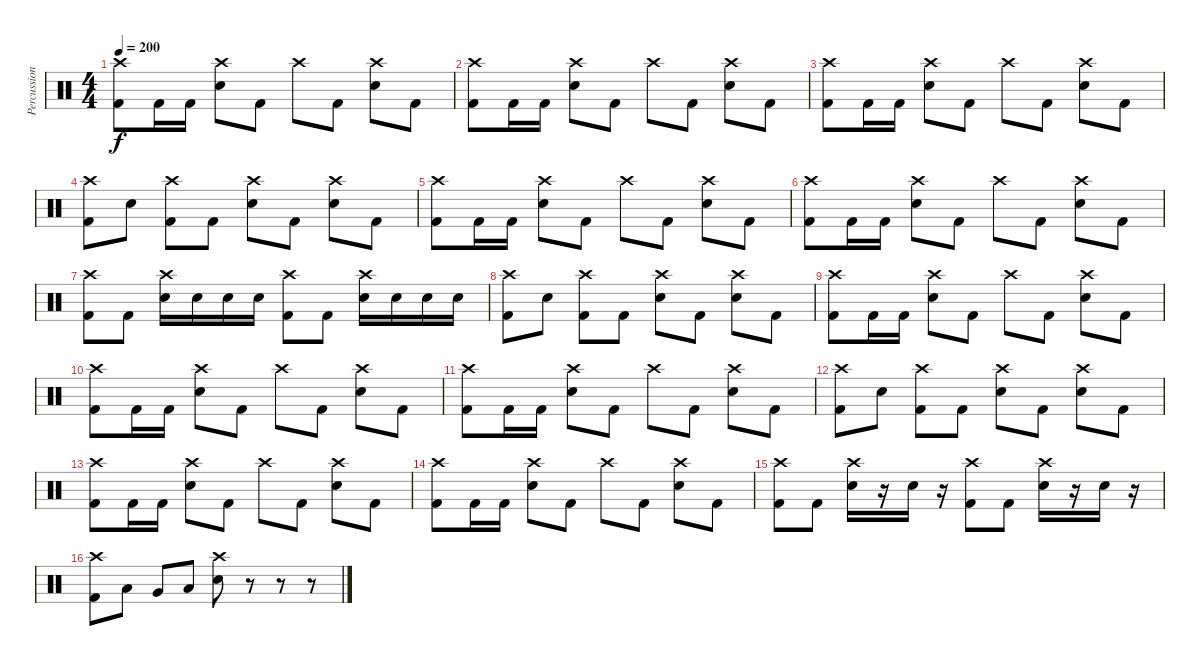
\track ("Percussion" "Percussion") {instrument percussion}
\staff {score}
\articulation defaults
\ts (4 4)
\tempo 200
\clef neutral
\ks c
("Crash high (hit)" "Kick (hit) 2").8{dy f} "Kick (hit) 2".16 "Kick (hit) 2".16 ("Crash high (hit)" "Snare (hit) 2").8 "Kick (hit) 2".8 "Crash high (hit)".8 "Kick (hit) 2".8 ("Crash high (hit)" "Snare (hit) 2").8 "Kick (hit) 2".8 |
("Crash high (hit)" "Kick (hit) 2").8 "Kick (hit) 2".16 "Kick (hit) 2".16 ("Crash high (hit)" "Snare (hit) 2").8 "Kick (hit) 2".8 "Crash high (hit)".8 "Kick (hit) 2".8 ("Crash high (hit)" "Snare (hit) 2").8 "Kick (hit) 2".8 |
("Crash high (hit)" "Kick (hit) 2").8 "Kick (hit) 2".16 "Kick (hit) 2".16 ("Crash high (hit)" "Snare (hit) 2").8 "Kick (hit) 2".8 "Crash high (hit)".8 "Kick (hit) 2".8 ("Crash high (hit)" "Snare (hit) 2").8 "Kick (hit) 2".8 |
("Crash high (hit)" "Kick (hit) 2").8 "Snare (hit) 2".8 ("Crash high (hit)" "Kick (hit) 2").8 "Kick (hit) 2".8 ("Crash high (hit)" "Snare (hit) 2").8 "Kick (hit) 2".8 ("Crash high (hit)" "Snare (hit) 2").8 "Kick (hit) 2".8 |
("Crash high (hit)" "Kick (hit) 2").8 "Kick (hit) 2".16 "Kick (hit) 2".16 ("Crash high (hit)" "Snare (hit) 2").8 "Kick (hit) 2".8 "Crash high (hit)".8 "Kick (hit) 2".8 ("Crash high (hit)" "Snare (hit) 2").8 "Kick (hit) 2".8 |
("Crash high (hit)" "Kick (hit) 2").8 "Kick (hit) 2".16 "Kick (hit) 2".16 ("Crash high (hit)" "Snare (hit) 2").8 "Kick (hit) 2".8 "Crash high (hit)".8 "Kick (hit) 2".8 ("Crash high (hit)" "Snare (hit) 2").8 "Kick (hit) 2".8 |
("Crash high (hit)" "Kick (hit) 2").8 "Kick (hit) 2".8 ("Crash high (hit)" "Snare (hit) 2").16 "Snare (hit) 2".16 "Snare (hit) 2".16 "Snare (hit) 2".16 ("Crash high (hit)" "Kick (hit) 2").8 "Kick (hit) 2".8 ("Crash high (hit)" "Snare (hit) 2").16 "Snare (hit) 2".16 "Snare (hit) 2".16 "Snare (hit) 2".16 |
("Crash high (hit)" "Kick (hit) 2").8 "Snare (hit) 2".8 ("Crash high (hit)" "Kick (hit) 2").8 "Kick (hit) 2".8 ("Crash high (hit)" "Snare (hit) 2").8 "Kick (hit) 2".8 ("Crash high (hit)" "Snare (hit) 2").8 "Kick (hit) 2".8 |
("Crash high (hit)" "Kick (hit) 2").8 "Kick (hit) 2".16 "Kick (hit) 2".16 ("Crash high (hit)" "Snare (hit) 2").8 "Kick (hit) 2".8 "Crash high (hit)".8 "Kick (hit) 2".8 ("Crash high (hit)" "Snare (hit) 2").8 "Kick (hit) 2".8 |
("Crash high (hit)" "Kick (hit) 2").8 "Kick (hit) 2".16 "Kick (hit) 2".16 ("Crash high (hit)" "Snare (hit) 2").8 "Kick (hit) 2".8 "Crash high (hit)".8 "Kick (hit) 2".8 ("Crash high (hit)" "Snare (hit) 2").8 "Kick (hit) 2".8 |
("Crash high (hit)" "Kick (hit) 2").8 "Kick (hit) 2".16 "Kick (hit) 2".16 ("Crash high (hit)" "Snare (hit) 2").8 "Kick (hit) 2".8 "Crash high (hit)".8 "Kick (hit) 2".8 ("Crash high (hit)" "Snare (hit) 2").8 "Kick (hit) 2".8 |
("Crash high (hit)" "Kick (hit) 2").8 "Snare (hit) 2".8 ("Crash high (hit)" "Kick (hit) 2").8 "Kick (hit) 2".8 ("Crash high (hit)" "Snare (hit) 2").8 "Kick (hit) 2".8 ("Crash high (hit)" "Snare (hit) 2").8 "Kick (hit) 2".8 |
("Crash high (hit)" "Kick (hit) 2").8 "Kick (hit) 2".16 "Kick (hit) 2".16 ("Crash high (hit)" "Snare (hit) 2").8 "Kick (hit) 2".8 "Crash high (hit)".8 "Kick (hit) 2".8 ("Crash high (hit)" "Snare (hit) 2").8 "Kick (hit) 2".8 |
("Crash high (hit)" "Kick (hit) 2").8 "Kick (hit) 2".16 "Kick (hit) 2".16 ("Crash high (hit)" "Snare (hit) 2").8 "Kick (hit) 2".8 "Crash high (hit)".8 "Kick (hit) 2".8 ("Crash high (hit)" "Snare (hit) 2").8 "Kick (hit) 2".8 |
("Crash high (hit)" "Kick (hit) 2").8 "Kick (hit) 2".8 ("Crash high (hit)" "Snare (hit) 2").16 r.16 "Snare (hit) 2".16 r.16 ("Crash high (hit)" "Kick (hit) 2").8 "Kick (hit) 2".8 ("Crash high (hit)" "Snare (hit) 2").16 r.16 "Snare (hit) 2".16 r.16 |
("Crash high (hit)" "Kick (hit) 2").8 "Low Tom (hit)".8 "Very Low Tom (hit)".8 "Low Floor Tom (hit)".8 ("Crash high (hit)" "Snare (hit) 2").8 r.8 r.8 r.8
